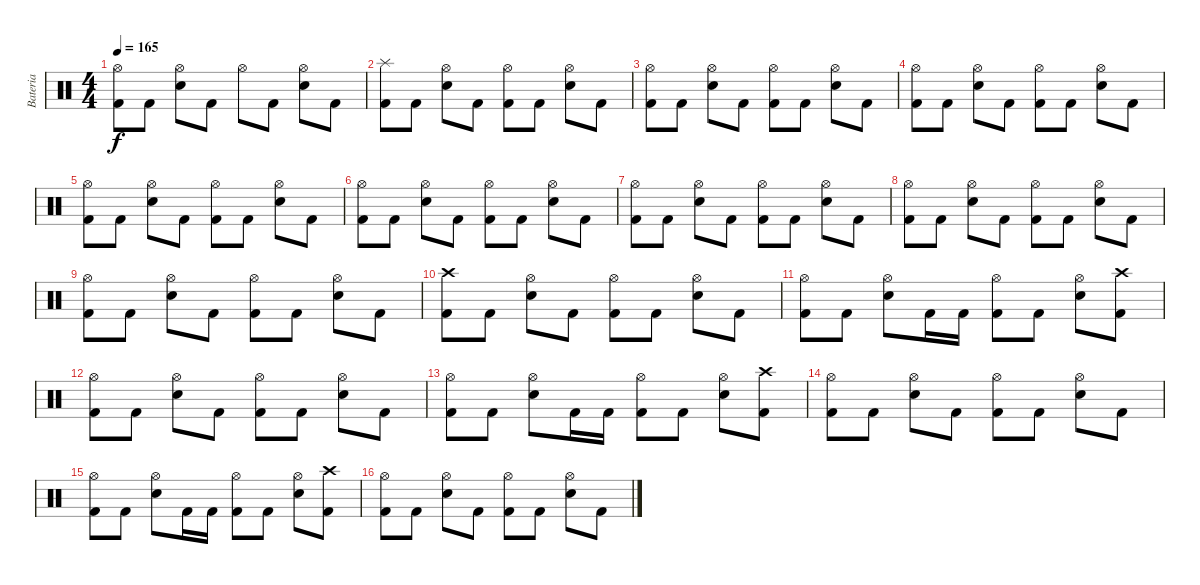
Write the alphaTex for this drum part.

\track ("Bateria" "Bateria") {instrument percussion}
\staff {score}
\articulation defaults
\ts (4 4)
\tempo 165
\clef neutral
\ks c
("Hi-Hat (open)" "Kick (hit) 2").8{dy f} "Kick (hit) 2".8 ("Hi-Hat (open)" "Snare (hit) 2").8 "Kick (hit) 2".8 "Hi-Hat (open)".8 "Kick (hit) 2".8 ("Hi-Hat (open)" "Snare (hit) 2").8 "Kick (hit) 2".8 |
("Splash (hit)" "Kick (hit) 2").8 "Kick (hit) 2".8 ("Hi-Hat (open)" "Snare (hit) 2").8 "Kick (hit) 2".8 ("Hi-Hat (open)" "Kick (hit) 2").8 "Kick (hit) 2".8 ("Hi-Hat (open)" "Snare (hit) 2").8 "Kick (hit) 2".8 |
("Hi-Hat (open)" "Kick (hit) 2").8 "Kick (hit) 2".8 ("Hi-Hat (open)" "Snare (hit) 2").8 "Kick (hit) 2".8 ("Hi-Hat (open)" "Kick (hit) 2").8 "Kick (hit) 2".8 ("Hi-Hat (open)" "Snare (hit) 2").8 "Kick (hit) 2".8 |
("Hi-Hat (open)" "Kick (hit) 2").8 "Kick (hit) 2".8 ("Hi-Hat (open)" "Snare (hit) 2").8 "Kick (hit) 2".8 ("Hi-Hat (open)" "Kick (hit) 2").8 "Kick (hit) 2".8 ("Hi-Hat (open)" "Snare (hit) 2").8 "Kick (hit) 2".8 |
("Hi-Hat (open)" "Kick (hit) 2").8 "Kick (hit) 2".8 ("Hi-Hat (open)" "Snare (hit) 2").8 "Kick (hit) 2".8 ("Hi-Hat (open)" "Kick (hit) 2").8 "Kick (hit) 2".8 ("Hi-Hat (open)" "Snare (hit) 2").8 "Kick (hit) 2".8 |
("Hi-Hat (open)" "Kick (hit) 2").8 "Kick (hit) 2".8 ("Hi-Hat (open)" "Snare (hit) 2").8 "Kick (hit) 2".8 ("Hi-Hat (open)" "Kick (hit) 2").8 "Kick (hit) 2".8 ("Hi-Hat (open)" "Snare (hit) 2").8 "Kick (hit) 2".8 |
("Hi-Hat (open)" "Kick (hit) 2").8 "Kick (hit) 2".8 ("Hi-Hat (open)" "Snare (hit) 2").8 "Kick (hit) 2".8 ("Hi-Hat (open)" "Kick (hit) 2").8 "Kick (hit) 2".8 ("Hi-Hat (open)" "Snare (hit) 2").8 "Kick (hit) 2".8 |
("Hi-Hat (open)" "Kick (hit) 2").8 "Kick (hit) 2".8 ("Hi-Hat (open)" "Snare (hit) 2").8 "Kick (hit) 2".8 ("Hi-Hat (open)" "Kick (hit) 2").8 "Kick (hit) 2".8 ("Hi-Hat (open)" "Snare (hit) 2").8 "Kick (hit) 2".8 |
("Hi-Hat (open)" "Kick (hit) 2").8 "Kick (hit) 2".8 ("Hi-Hat (open)" "Snare (hit) 2").8 "Kick (hit) 2".8 ("Hi-Hat (open)" "Kick (hit) 2").8 "Kick (hit) 2".8 ("Hi-Hat (open)" "Snare (hit) 2").8 "Kick (hit) 2".8 |
("Crash high (hit)" "Kick (hit) 2").8 "Kick (hit) 2".8 ("Hi-Hat (open)" "Snare (hit) 2").8 "Kick (hit) 2".8 ("Hi-Hat (open)" "Kick (hit) 2").8 "Kick (hit) 2".8 ("Hi-Hat (open)" "Snare (hit) 2").8 "Kick (hit) 2".8 |
("Hi-Hat (open)" "Kick (hit) 2").8 "Kick (hit) 2".8 ("Hi-Hat (open)" "Snare (hit) 2").8 "Kick (hit) 2".16 "Kick (hit) 2".16 ("Hi-Hat (open)" "Kick (hit) 2").8 "Kick (hit) 2".8 ("Hi-Hat (open)" "Snare (hit) 2").8 ("Crash high (hit)" "Kick (hit) 2").8 |
("Hi-Hat (open)" "Kick (hit) 2").8 "Kick (hit) 2".8 ("Hi-Hat (open)" "Snare (hit) 2").8 "Kick (hit) 2".8 ("Hi-Hat (open)" "Kick (hit) 2").8 "Kick (hit) 2".8 ("Hi-Hat (open)" "Snare (hit) 2").8 "Kick (hit) 2".8 |
("Hi-Hat (open)" "Kick (hit) 2").8 "Kick (hit) 2".8 ("Hi-Hat (open)" "Snare (hit) 2").8 "Kick (hit) 2".16 "Kick (hit) 2".16 ("Hi-Hat (open)" "Kick (hit) 2").8 "Kick (hit) 2".8 ("Hi-Hat (open)" "Snare (hit) 2").8 ("Crash high (hit)" "Kick (hit) 2").8 |
("Hi-Hat (open)" "Kick (hit) 2").8 "Kick (hit) 2".8 ("Hi-Hat (open)" "Snare (hit) 2").8 "Kick (hit) 2".8 ("Hi-Hat (open)" "Kick (hit) 2").8 "Kick (hit) 2".8 ("Hi-Hat (open)" "Snare (hit) 2").8 "Kick (hit) 2".8 |
("Hi-Hat (open)" "Kick (hit) 2").8 "Kick (hit) 2".8 ("Hi-Hat (open)" "Snare (hit) 2").8 "Kick (hit) 2".16 "Kick (hit) 2".16 ("Hi-Hat (open)" "Kick (hit) 2").8 "Kick (hit) 2".8 ("Hi-Hat (open)" "Snare (hit) 2").8 ("Crash high (hit)" "Kick (hit) 2").8 |
("Hi-Hat (open)" "Kick (hit) 2").8 "Kick (hit) 2".8 ("Hi-Hat (open)" "Snare (hit) 2").8 "Kick (hit) 2".8 ("Hi-Hat (open)" "Kick (hit) 2").8 "Kick (hit) 2".8 ("Hi-Hat (open)" "Snare (hit) 2").8 "Kick (hit) 2".8
